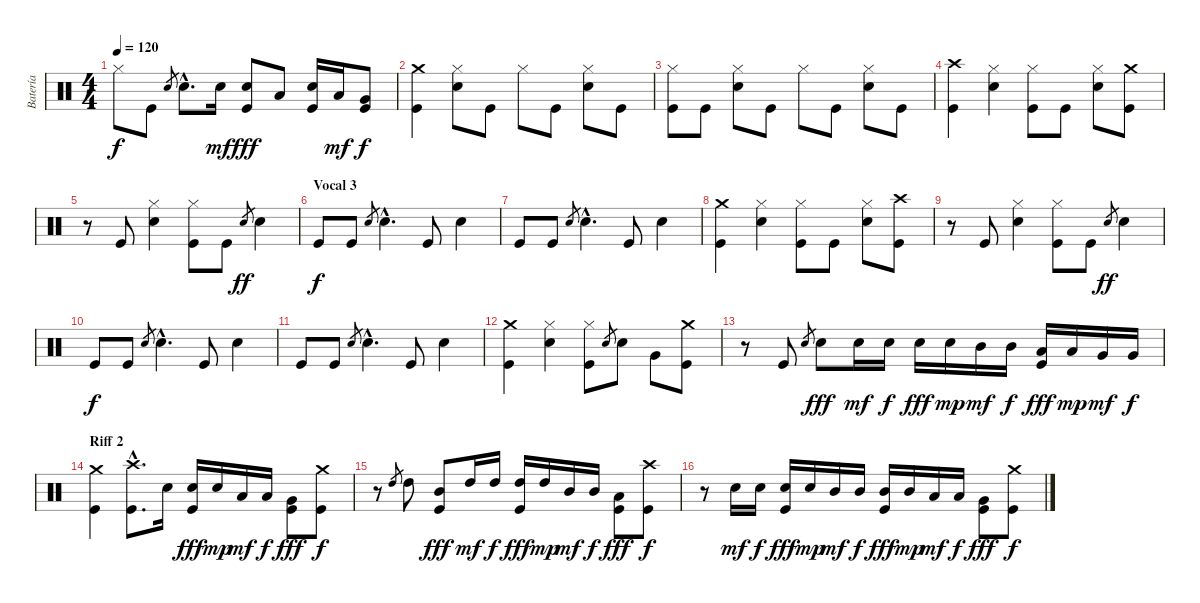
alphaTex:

\track ("Batería" "Batería") {instrument percussion}
\staff {score}
\articulation defaults
\ts (4 4)
\tempo 120
\clef neutral
\ks c "Hi-Hat (closed)".8{dy f} "Kick (hit)".8 "Electric Snare (hit)".8{gr} "Electric Snare (hit)"{hac}.8{d} "Electric Snare (hit)".16{dy mf}
("Kick (hit)" "Electric Snare (hit)").8{dy fff} "Low Tom (hit)".8 ("Kick (hit)" "Electric Snare (hit)").16 "Low Tom (hit)".16{dy mf} ("Kick (hit)" "Very Low Tom (hit)").8{dy f} |
("Kick (hit)" "Crash medium (hit)").4 ("Electric Snare (hit)" "Hi-Hat (closed)").8 "Kick (hit)".8 "Hi-Hat (closed)".8 "Kick (hit)".8 ("Electric Snare (hit)" "Hi-Hat (closed)").8 "Kick (hit)".8 |
("Kick (hit)" "Hi-Hat (closed)").8 "Kick (hit)".8 ("Electric Snare (hit)" "Hi-Hat (closed)").8 "Kick (hit)".8 "Hi-Hat (closed)".8 "Kick (hit)".8 ("Electric Snare (hit)" "Hi-Hat (closed)").8 "Kick (hit)".8 |
("Kick (hit)" "Crash high (hit)").4 ("Electric Snare (hit)" "Hi-Hat (closed)").4 ("Kick (hit)" "Hi-Hat (closed)").8 "Kick (hit)".8 ("Electric Snare (hit)" "Hi-Hat (closed)").8 ("Kick (hit)" "Crash medium (hit)").8 |
r.8 "Kick (hit)".8 ("Electric Snare (hit)" "Hi-Hat (closed)").4 ("Kick (hit)" "Hi-Hat (closed)").8 "Kick (hit)".8 "Electric Snare (hit)".8{gr dy ff} "Electric Snare (hit)".4 |
\section ("" "Vocal 3")
"Kick (hit)".8{dy f} "Kick (hit)".8 "Electric Snare (hit)".8{gr} "Electric Snare (hit)"{hac}.4{d} "Kick (hit)".8 "Electric Snare (hit)".4 |
"Kick (hit)".8 "Kick (hit)".8 "Electric Snare (hit)".8{gr} "Electric Snare (hit)"{hac}.4{d} "Kick (hit)".8 "Electric Snare (hit)".4 |
("Kick (hit)" "Crash medium (hit)").4 ("Electric Snare (hit)" "Hi-Hat (closed)").4 ("Kick (hit)" "Hi-Hat (closed)").8 "Kick (hit)".8 ("Electric Snare (hit)" "Hi-Hat (closed)").8 ("Kick (hit)" "Crash high (hit)").8 |
r.8 "Kick (hit)".8 ("Electric Snare (hit)" "Hi-Hat (closed)").4 ("Kick (hit)" "Hi-Hat (closed)").8 "Kick (hit)".8 "Electric Snare (hit)".8{gr dy ff} "Electric Snare (hit)".4 |
"Kick (hit)".8{dy f} "Kick (hit)".8 "Electric Snare (hit)".8{gr} "Electric Snare (hit)"{hac}.4{d} "Kick (hit)".8 "Electric Snare (hit)".4 |
"Kick (hit)".8 "Kick (hit)".8 "Electric Snare (hit)".8{gr} "Electric Snare (hit)"{hac}.4{d} "Kick (hit)".8 "Electric Snare (hit)".4 |
("Kick (hit)" "Crash medium (hit)").4 ("Electric Snare (hit)" "Hi-Hat (closed)").4 ("Kick (hit)" "Hi-Hat (closed)").8 "Electric Snare (hit)".8{gr} "Electric Snare (hit)".8 "Very Low Tom (hit)".8 ("Kick (hit)" "Crash medium (hit)").8 |
r.8 "Kick (hit)".8 "Electric Snare (hit)".8{gr} "Electric Snare (hit)".8{dy fff} "Electric Snare (hit)".16{dy mf} "Electric Snare (hit)".16{dy f} "Electric Snare (hit)".16{dy fff} "Electric Snare (hit)".16{dy mp} "Mid Tom (hit)".16{dy mf} "Mid Tom (hit)".16{dy f} ("Kick (hit)" "Low Tom (hit)").16{dy fff} "Low Tom (hit)".16{dy mp} "Very Low Tom (hit)".16{dy mf} "Very Low Tom (hit)".16{dy f} |
\section ("" "Riff 2")
("Kick (hit)" "Crash medium (hit)").4 ("Kick (hit)"{hac} "Crash high (hit)"{hac}).8{d} "Electric Snare (hit)".16 ("Kick (hit)" "Electric Snare (hit)").16{dy fff} "Electric Snare (hit)".16{dy mp} "Low Tom (hit)".16{dy mf} "Low Tom (hit)".16{dy f} ("Kick (hit)" "Very Low Tom (hit)").8{dy fff} ("Kick (hit)" "Crash medium (hit)").8{dy f} |
r.8 "High Tom (hit)".8{gr} "High Tom (hit)".8 ("Kick (hit)" "Mid Tom (hit)").8{dy fff} "High Tom (hit)".16{dy mf} "High Tom (hit)".16{dy f} ("Kick (hit)" "High Tom (hit)").16{dy fff} "High Tom (hit)".16{dy mp} "Mid Tom (hit)".16{dy mf} "Mid Tom (hit)".16{dy f} ("Kick (hit)" "Low Tom (hit)").8{dy fff} ("Kick (hit)" "Crash high (hit)").8{dy f} |
r.8 "Electric Snare (hit)".16{dy mf} "Electric Snare (hit)".16{dy f} ("Kick (hit)" "Electric Snare (hit)").16{dy fff} "Electric Snare (hit)".16{dy mp} "Mid Tom (hit)".16{dy mf} "Mid Tom (hit)".16{dy f} ("Kick (hit)" "Mid Tom (hit)").16{dy fff} "Mid Tom (hit)".16{dy mp} "Low Tom (hit)".16{dy mf} "Low Tom (hit)".16{dy f} ("Kick (hit)" "Very Low Tom (hit)").8{dy fff} ("Kick (hit)" "Crash medium (hit)").8{dy f}
